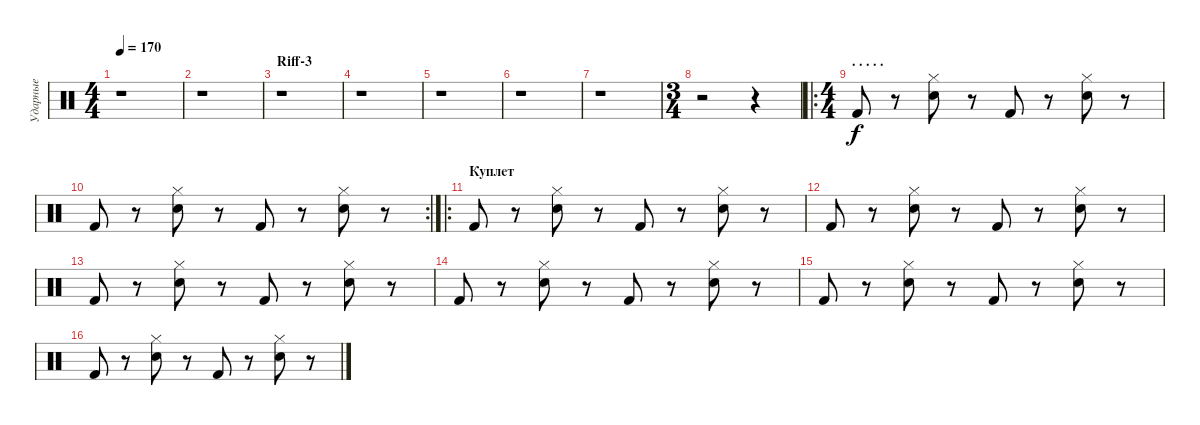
\track ("Ударные" "Ударные") {instrument percussion}
\staff {score}
\articulation defaults
\ts (4 4)
\tempo 170
\clef neutral
\ks c
r.1{dy f} |
r.1 |
\section ("" "Riff-3")
r.1 |
r.1 |
r.1 |
r.1 |
r.1 |
\ts (3 4)
r.2 r.4 |
\ro
\ts (4 4)
\section ("" ". . . . .")
"Kick (hit) 2".8 r.8 ("Hi-Hat (closed)" "Electric Snare (hit)").8 r.8 "Kick (hit) 2".8 r.8 ("Hi-Hat (closed)" "Electric Snare (hit)").8 r.8 |
\rc 2 "Kick (hit) 2".8
r.8 ("Hi-Hat (closed)" "Electric Snare (hit)").8 r.8 "Kick (hit) 2".8 r.8 ("Hi-Hat (closed)" "Electric Snare (hit)").8 r.8 |
\ro
\section ("" "Куплет")
"Kick (hit) 2".8 r.8 ("Hi-Hat (closed)" "Electric Snare (hit)").8 r.8 "Kick (hit) 2".8 r.8 ("Hi-Hat (closed)" "Electric Snare (hit)").8 r.8 |
"Kick (hit) 2".8 r.8 ("Hi-Hat (closed)" "Electric Snare (hit)").8 r.8 "Kick (hit) 2".8 r.8 ("Hi-Hat (closed)" "Electric Snare (hit)").8 r.8 |
"Kick (hit) 2".8 r.8 ("Hi-Hat (closed)" "Electric Snare (hit)").8 r.8 "Kick (hit) 2".8 r.8 ("Hi-Hat (closed)" "Electric Snare (hit)").8 r.8 |
"Kick (hit) 2".8 r.8 ("Hi-Hat (closed)" "Electric Snare (hit)").8 r.8 "Kick (hit) 2".8 r.8 ("Hi-Hat (closed)" "Electric Snare (hit)").8 r.8 |
"Kick (hit) 2".8 r.8 ("Hi-Hat (closed)" "Electric Snare (hit)").8 r.8 "Kick (hit) 2".8 r.8 ("Hi-Hat (closed)" "Electric Snare (hit)").8 r.8 |
"Kick (hit) 2".8 r.8 ("Hi-Hat (closed)" "Electric Snare (hit)").8 r.8 "Kick (hit) 2".8 r.8 ("Hi-Hat (closed)" "Electric Snare (hit)").8 r.8
